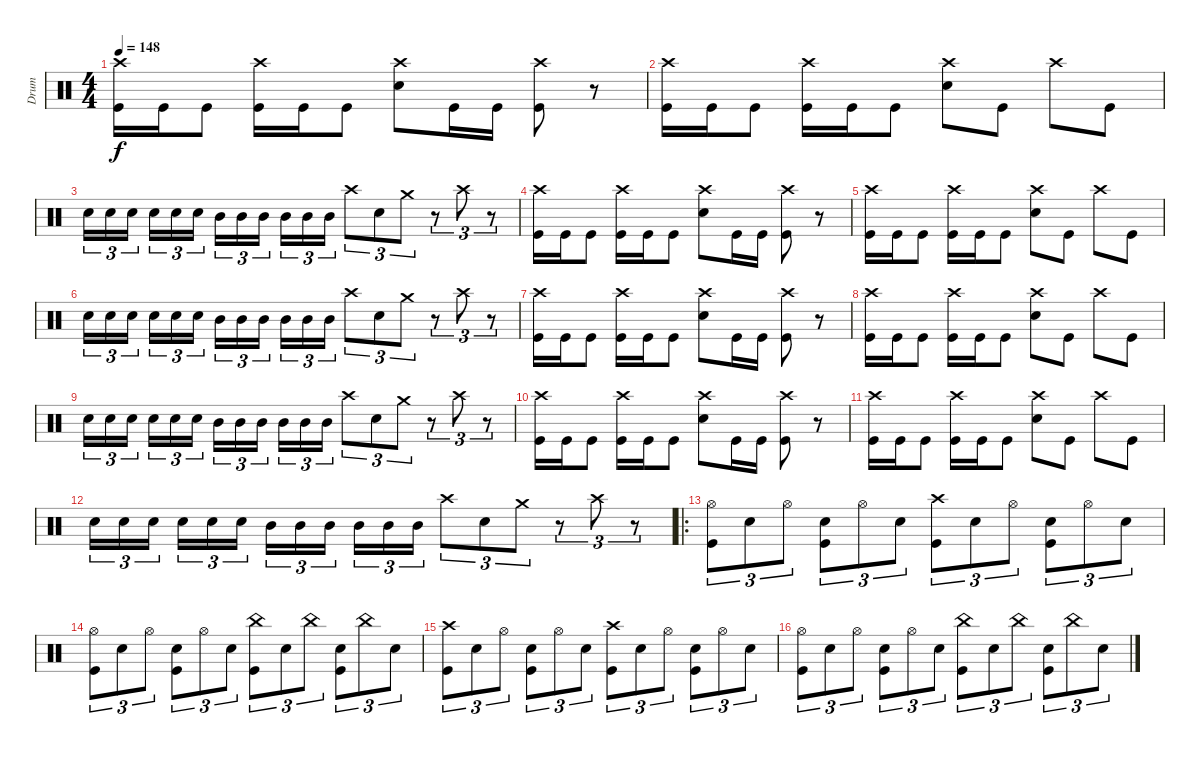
\track ("Drum" "Drum") {instrument percussion}
\staff {score}
\articulation defaults
\ts (4 4)
\tempo 148
\clef neutral
\ks c
("Crash high (hit)" "Kick (hit)").16{dy f} "Kick (hit)".16 "Kick (hit)".8 ("Crash high (hit)" "Kick (hit)").16 "Kick (hit)".16 "Kick (hit)".8 ("Crash high (hit)" "Snare (hit) 2").8 "Kick (hit)".16 "Kick (hit)".16 ("Crash high (hit)" "Kick (hit)").8 r.8 |
("Crash high (hit)" "Kick (hit)").16 "Kick (hit)".16 "Kick (hit)".8 ("Crash high (hit)" "Kick (hit)").16 "Kick (hit)".16 "Kick (hit)".8 ("Crash high (hit)" "Snare (hit) 2").8 "Kick (hit)".8 "Crash high (hit)".8 "Kick (hit)".8 |
"Snare (hit) 2".16{tu (3 2)} "Snare (hit) 2".16{tu (3 2)} "Snare (hit) 2".16{tu (3 2) beam splitsecondary} "Snare (hit) 2".16{tu (3 2)} "Snare (hit) 2".16{tu (3 2)} "Snare (hit) 2".16{tu (3 2)} "Mid Tom (hit)".16{tu (3 2)} "Mid Tom (hit)".16{tu (3 2)} "Mid Tom (hit)".16{tu (3 2) beam splitsecondary} "Mid Tom (hit)".16{tu (3 2)} "Mid Tom (hit)".16{tu (3 2)} "Mid Tom (hit)".16{tu (3 2)} "Crash high (hit)".8{tu (3 2)} "Snare (hit) 2".8{tu (3 2)} "Crash medium (hit)".8{tu (3 2)} r.8{tu (3 2)} "Crash high (hit)".8{tu (3 2)} r.8{tu (3 2)} |
("Crash high (hit)" "Kick (hit)").16 "Kick (hit)".16 "Kick (hit)".8 ("Crash high (hit)" "Kick (hit)").16 "Kick (hit)".16 "Kick (hit)".8 ("Crash high (hit)" "Snare (hit) 2").8 "Kick (hit)".16 "Kick (hit)".16 ("Crash high (hit)" "Kick (hit)").8 r.8 |
("Crash high (hit)" "Kick (hit)").16 "Kick (hit)".16 "Kick (hit)".8 ("Crash high (hit)" "Kick (hit)").16 "Kick (hit)".16 "Kick (hit)".8 ("Crash high (hit)" "Snare (hit) 2").8 "Kick (hit)".8 "Crash high (hit)".8 "Kick (hit)".8 |
"Snare (hit) 2".16{tu (3 2)} "Snare (hit) 2".16{tu (3 2)} "Snare (hit) 2".16{tu (3 2) beam splitsecondary} "Snare (hit) 2".16{tu (3 2)} "Snare (hit) 2".16{tu (3 2)} "Snare (hit) 2".16{tu (3 2)} "Mid Tom (hit)".16{tu (3 2)} "Mid Tom (hit)".16{tu (3 2)} "Mid Tom (hit)".16{tu (3 2) beam splitsecondary} "Mid Tom (hit)".16{tu (3 2)} "Mid Tom (hit)".16{tu (3 2)} "Mid Tom (hit)".16{tu (3 2)} "Crash high (hit)".8{tu (3 2)} "Snare (hit) 2".8{tu (3 2)} "Crash medium (hit)".8{tu (3 2)} r.8{tu (3 2)} "Crash high (hit)".8{tu (3 2)} r.8{tu (3 2)} |
("Crash high (hit)" "Kick (hit)").16 "Kick (hit)".16 "Kick (hit)".8 ("Crash high (hit)" "Kick (hit)").16 "Kick (hit)".16 "Kick (hit)".8 ("Crash high (hit)" "Snare (hit) 2").8 "Kick (hit)".16 "Kick (hit)".16 ("Crash high (hit)" "Kick (hit)").8 r.8 |
("Crash high (hit)" "Kick (hit)").16 "Kick (hit)".16 "Kick (hit)".8 ("Crash high (hit)" "Kick (hit)").16 "Kick (hit)".16 "Kick (hit)".8 ("Crash high (hit)" "Snare (hit) 2").8 "Kick (hit)".8 "Crash high (hit)".8 "Kick (hit)".8 |
"Snare (hit) 2".16{tu (3 2)} "Snare (hit) 2".16{tu (3 2)} "Snare (hit) 2".16{tu (3 2) beam splitsecondary} "Snare (hit) 2".16{tu (3 2)} "Snare (hit) 2".16{tu (3 2)} "Snare (hit) 2".16{tu (3 2)} "Mid Tom (hit)".16{tu (3 2)} "Mid Tom (hit)".16{tu (3 2)} "Mid Tom (hit)".16{tu (3 2) beam splitsecondary} "Mid Tom (hit)".16{tu (3 2)} "Mid Tom (hit)".16{tu (3 2)} "Mid Tom (hit)".16{tu (3 2)} "Crash high (hit)".8{tu (3 2)} "Snare (hit) 2".8{tu (3 2)} "Crash medium (hit)".8{tu (3 2)} r.8{tu (3 2)} "Crash high (hit)".8{tu (3 2)} r.8{tu (3 2)} |
("Crash high (hit)" "Kick (hit)").16 "Kick (hit)".16 "Kick (hit)".8 ("Crash high (hit)" "Kick (hit)").16 "Kick (hit)".16 "Kick (hit)".8 ("Crash high (hit)" "Snare (hit) 2").8 "Kick (hit)".16 "Kick (hit)".16 ("Crash high (hit)" "Kick (hit)").8 r.8 |
("Crash high (hit)" "Kick (hit)").16 "Kick (hit)".16 "Kick (hit)".8 ("Crash high (hit)" "Kick (hit)").16 "Kick (hit)".16 "Kick (hit)".8 ("Crash high (hit)" "Snare (hit) 2").8 "Kick (hit)".8 "Crash high (hit)".8 "Kick (hit)".8 |
"Snare (hit) 2".16{tu (3 2)} "Snare (hit) 2".16{tu (3 2)} "Snare (hit) 2".16{tu (3 2) beam splitsecondary} "Snare (hit) 2".16{tu (3 2)} "Snare (hit) 2".16{tu (3 2)} "Snare (hit) 2".16{tu (3 2)} "Mid Tom (hit)".16{tu (3 2)} "Mid Tom (hit)".16{tu (3 2)} "Mid Tom (hit)".16{tu (3 2) beam splitsecondary} "Mid Tom (hit)".16{tu (3 2)} "Mid Tom (hit)".16{tu (3 2)} "Mid Tom (hit)".16{tu (3 2)} "Crash high (hit)".8{tu (3 2)} "Snare (hit) 2".8{tu (3 2)} "Crash medium (hit)".8{tu (3 2)} r.8{tu (3 2)} "Crash high (hit)".8{tu (3 2)} r.8{tu (3 2)} |
\ro
("Hi-Hat (open)" "Kick (hit)").8{tu (3 2)} "Snare (hit) 2".8{tu (3 2)} "Hi-Hat (open)".8{tu (3 2)} ("Snare (hit) 2" "Kick (hit)").8{tu (3 2)} "Hi-Hat (open)".8{tu (3 2)} "Snare (hit) 2".8{tu (3 2)} ("Crash high (hit)" "Kick (hit)").8{tu (3 2)} "Snare (hit) 2".8{tu (3 2)} "Hi-Hat (open)".8{tu (3 2)} ("Snare (hit) 2" "Kick (hit)").8{tu (3 2)} "Hi-Hat (open)".8{tu (3 2)} "Snare (hit) 2".8{tu (3 2)} |
("Hi-Hat (open)" "Kick (hit)").8{tu (3 2)} "Snare (hit) 2".8{tu (3 2)} "Hi-Hat (open)".8{tu (3 2)} ("Snare (hit) 2" "Kick (hit)").8{tu (3 2)} "Hi-Hat (open)".8{tu (3 2)} "Snare (hit) 2".8{tu (3 2)} ("China (hit)" "Kick (hit)").8{tu (3 2)} "Snare (hit) 2".8{tu (3 2)} "China (hit)".8{tu (3 2)} ("Snare (hit) 2" "Kick (hit)").8{tu (3 2)} "China (hit)".8{tu (3 2)} "Snare (hit) 2".8{tu (3 2)} |
("Crash high (hit)" "Kick (hit)").8{tu (3 2)} "Snare (hit) 2".8{tu (3 2)} "Hi-Hat (open)".8{tu (3 2)} ("Snare (hit) 2" "Kick (hit)").8{tu (3 2)} "Hi-Hat (open)".8{tu (3 2)} "Snare (hit) 2".8{tu (3 2)} ("Crash high (hit)" "Kick (hit)").8{tu (3 2)} "Snare (hit) 2".8{tu (3 2)} "Hi-Hat (open)".8{tu (3 2)} ("Snare (hit) 2" "Kick (hit)").8{tu (3 2)} "Hi-Hat (open)".8{tu (3 2)} "Snare (hit) 2".8{tu (3 2)} |
("Hi-Hat (open)" "Kick (hit)").8{tu (3 2)} "Snare (hit) 2".8{tu (3 2)} "Hi-Hat (open)".8{tu (3 2)} ("Snare (hit) 2" "Kick (hit)").8{tu (3 2)} "Hi-Hat (open)".8{tu (3 2)} "Snare (hit) 2".8{tu (3 2)} ("China (hit)" "Kick (hit)").8{tu (3 2)} "Snare (hit) 2".8{tu (3 2)} "China (hit)".8{tu (3 2)} ("Snare (hit) 2" "Kick (hit)").8{tu (3 2)} "China (hit)".8{tu (3 2)} "Snare (hit) 2".8{tu (3 2)}
